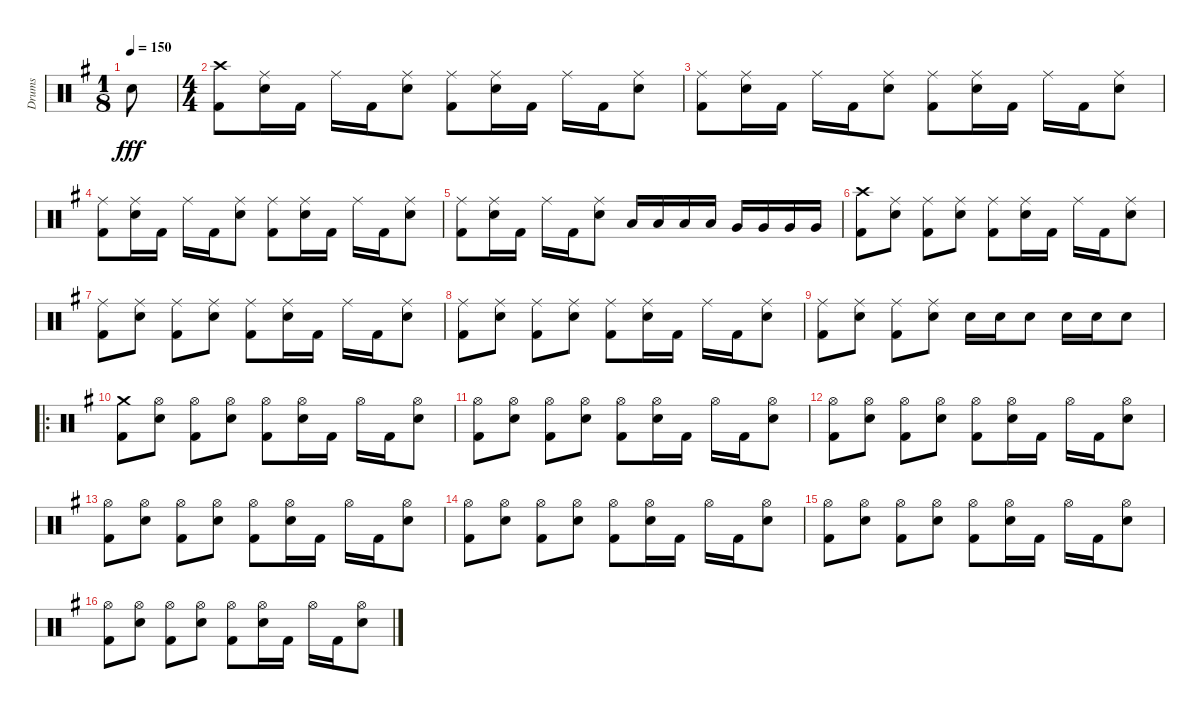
\track ("Drums" "Drums") {instrument percussion}
\staff {score}
\articulation defaults
\ts (1 8)
\tempo 150
\clef neutral
\ks g "Electric Snare (hit)".8{dy fff}
|
\ts (4 4)
("Crash high (hit)" "Kick (hit) 2").8 ("Ride (middle)" "Electric Snare (hit)").16 "Kick (hit) 2".16 "Ride (middle)".16 "Kick (hit) 2".16 ("Ride (middle)" "Electric Snare (hit)").8 ("Ride (middle)" "Kick (hit) 2").8 ("Ride (middle)" "Electric Snare (hit)").16 "Kick (hit) 2".16 "Ride (middle)".16 "Kick (hit) 2".16 ("Ride (middle)" "Electric Snare (hit)").8 |
("Ride (middle)" "Kick (hit) 2").8 ("Ride (middle)" "Electric Snare (hit)").16 "Kick (hit) 2".16 "Ride (middle)".16 "Kick (hit) 2".16 ("Ride (middle)" "Electric Snare (hit)").8 ("Ride (middle)" "Kick (hit) 2").8 ("Ride (middle)" "Electric Snare (hit)").16 "Kick (hit) 2".16 "Ride (middle)".16 "Kick (hit) 2".16 ("Ride (middle)" "Electric Snare (hit)").8 |
("Ride (middle)" "Kick (hit) 2").8 ("Ride (middle)" "Electric Snare (hit)").16 "Kick (hit) 2".16 "Ride (middle)".16 "Kick (hit) 2".16 ("Ride (middle)" "Electric Snare (hit)").8 ("Ride (middle)" "Kick (hit) 2").8 ("Ride (middle)" "Electric Snare (hit)").16 "Kick (hit) 2".16 "Ride (middle)".16 "Kick (hit) 2".16 ("Ride (middle)" "Electric Snare (hit)").8 |
("Ride (middle)" "Kick (hit) 2").8 ("Ride (middle)" "Electric Snare (hit)").16 "Kick (hit) 2".16 "Ride (middle)".16 "Kick (hit) 2".16 ("Ride (middle)" "Electric Snare (hit)").8 "Low Tom (hit)".16 "Low Tom (hit)".16 "Low Tom (hit)".16 "Low Tom (hit)".16 "Very Low Tom (hit)".16 "Very Low Tom (hit)".16 "Very Low Tom (hit)".16 "Very Low Tom (hit)".16 |
("Crash high (hit)" "Kick (hit) 2").8 ("Ride (middle)" "Electric Snare (hit)").8 ("Ride (middle)" "Kick (hit) 2").8 ("Ride (middle)" "Electric Snare (hit)").8 ("Ride (middle)" "Kick (hit) 2").8 ("Ride (middle)" "Electric Snare (hit)").16 "Kick (hit) 2".16 "Ride (middle)".16 "Kick (hit) 2".16 ("Ride (middle)" "Electric Snare (hit)").8 |
("Ride (middle)" "Kick (hit) 2").8 ("Ride (middle)" "Electric Snare (hit)").8 ("Ride (middle)" "Kick (hit) 2").8 ("Ride (middle)" "Electric Snare (hit)").8 ("Ride (middle)" "Kick (hit) 2").8 ("Ride (middle)" "Electric Snare (hit)").16 "Kick (hit) 2".16 "Ride (middle)".16 "Kick (hit) 2".16 ("Ride (middle)" "Electric Snare (hit)").8 |
("Ride (middle)" "Kick (hit) 2").8 ("Ride (middle)" "Electric Snare (hit)").8 ("Ride (middle)" "Kick (hit) 2").8 ("Ride (middle)" "Electric Snare (hit)").8 ("Ride (middle)" "Kick (hit) 2").8 ("Ride (middle)" "Electric Snare (hit)").16 "Kick (hit) 2".16 "Ride (middle)".16 "Kick (hit) 2".16 ("Ride (middle)" "Electric Snare (hit)").8 |
("Ride (middle)" "Kick (hit) 2").8 ("Ride (middle)" "Electric Snare (hit)").8 ("Ride (middle)" "Kick (hit) 2").8 ("Ride (middle)" "Electric Snare (hit)").8 "Electric Snare (hit)".16 "Electric Snare (hit)".16 "Electric Snare (hit)".8 "Electric Snare (hit)".16 "Electric Snare (hit)".16 "Electric Snare (hit)".8 |
\ro
("Crash medium (hit)" "Kick (hit) 2").8 ("Hi-Hat (open)" "Electric Snare (hit)").8 ("Hi-Hat (open)" "Kick (hit) 2").8 ("Hi-Hat (open)" "Electric Snare (hit)").8 ("Hi-Hat (open)" "Kick (hit) 2").8 ("Hi-Hat (open)" "Electric Snare (hit)").16 "Kick (hit) 2".16 "Hi-Hat (open)".16 "Kick (hit) 2".16 ("Hi-Hat (open)" "Electric Snare (hit)").8 |
("Hi-Hat (open)" "Kick (hit) 2").8 ("Hi-Hat (open)" "Electric Snare (hit)").8 ("Hi-Hat (open)" "Kick (hit) 2").8 ("Hi-Hat (open)" "Electric Snare (hit)").8 ("Hi-Hat (open)" "Kick (hit) 2").8 ("Hi-Hat (open)" "Electric Snare (hit)").16 "Kick (hit) 2".16 "Hi-Hat (open)".16 "Kick (hit) 2".16 ("Hi-Hat (open)" "Electric Snare (hit)").8 |
("Hi-Hat (open)" "Kick (hit) 2").8 ("Hi-Hat (open)" "Electric Snare (hit)").8 ("Hi-Hat (open)" "Kick (hit) 2").8 ("Hi-Hat (open)" "Electric Snare (hit)").8 ("Hi-Hat (open)" "Kick (hit) 2").8 ("Hi-Hat (open)" "Electric Snare (hit)").16 "Kick (hit) 2".16 "Hi-Hat (open)".16 "Kick (hit) 2".16 ("Hi-Hat (open)" "Electric Snare (hit)").8 |
("Hi-Hat (open)" "Kick (hit) 2").8 ("Hi-Hat (open)" "Electric Snare (hit)").8 ("Hi-Hat (open)" "Kick (hit) 2").8 ("Hi-Hat (open)" "Electric Snare (hit)").8 ("Hi-Hat (open)" "Kick (hit) 2").8 ("Hi-Hat (open)" "Electric Snare (hit)").16 "Kick (hit) 2".16 "Hi-Hat (open)".16 "Kick (hit) 2".16 ("Hi-Hat (open)" "Electric Snare (hit)").8 |
("Hi-Hat (open)" "Kick (hit) 2").8 ("Hi-Hat (open)" "Electric Snare (hit)").8 ("Hi-Hat (open)" "Kick (hit) 2").8 ("Hi-Hat (open)" "Electric Snare (hit)").8 ("Hi-Hat (open)" "Kick (hit) 2").8 ("Hi-Hat (open)" "Electric Snare (hit)").16 "Kick (hit) 2".16 "Hi-Hat (open)".16 "Kick (hit) 2".16 ("Hi-Hat (open)" "Electric Snare (hit)").8 |
("Hi-Hat (open)" "Kick (hit) 2").8 ("Hi-Hat (open)" "Electric Snare (hit)").8 ("Hi-Hat (open)" "Kick (hit) 2").8 ("Hi-Hat (open)" "Electric Snare (hit)").8 ("Hi-Hat (open)" "Kick (hit) 2").8 ("Hi-Hat (open)" "Electric Snare (hit)").16 "Kick (hit) 2".16 "Hi-Hat (open)".16 "Kick (hit) 2".16 ("Hi-Hat (open)" "Electric Snare (hit)").8 |
("Hi-Hat (open)" "Kick (hit) 2").8 ("Hi-Hat (open)" "Electric Snare (hit)").8 ("Hi-Hat (open)" "Kick (hit) 2").8 ("Hi-Hat (open)" "Electric Snare (hit)").8 ("Hi-Hat (open)" "Kick (hit) 2").8 ("Hi-Hat (open)" "Electric Snare (hit)").16 "Kick (hit) 2".16 "Hi-Hat (open)".16 "Kick (hit) 2".16 ("Hi-Hat (open)" "Electric Snare (hit)").8
